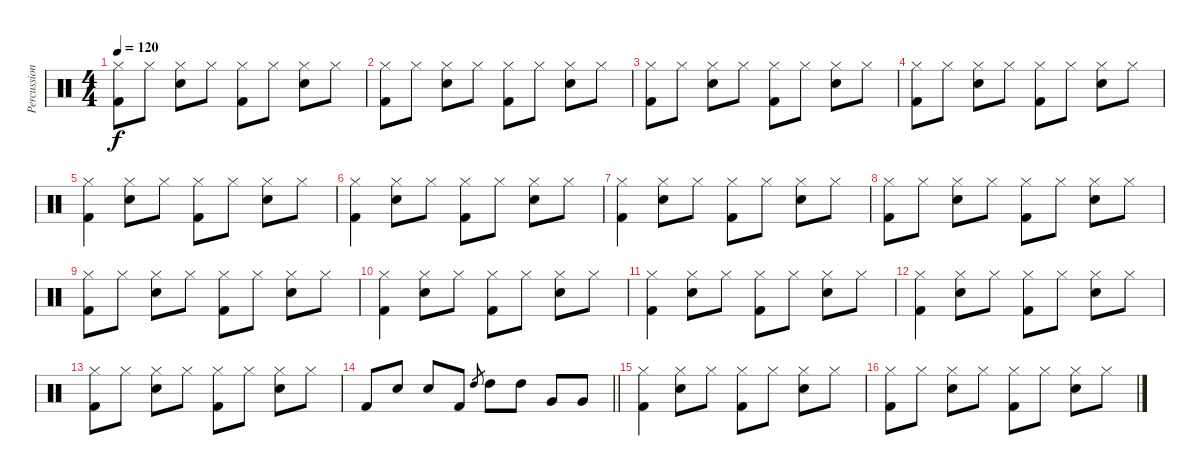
\track ("Percussion" "Percussion") {instrument percussion}
\staff {score}
\articulation defaults
\ts (4 4)
\tempo 120
\clef neutral
\ks c
("Hi-Hat (closed)" "Kick (hit) 2").8{dy f} "Hi-Hat (closed)".8 ("Hi-Hat (closed)" "Snare (hit) 2").8 "Hi-Hat (closed)".8 ("Hi-Hat (closed)" "Kick (hit) 2").8 "Hi-Hat (closed)".8 ("Hi-Hat (closed)" "Snare (hit) 2").8 "Hi-Hat (closed)".8 |
("Hi-Hat (closed)" "Kick (hit) 2").8 "Hi-Hat (closed)".8 ("Hi-Hat (closed)" "Snare (hit) 2").8 "Hi-Hat (closed)".8 ("Hi-Hat (closed)" "Kick (hit) 2").8 "Hi-Hat (closed)".8 ("Hi-Hat (closed)" "Snare (hit) 2").8 "Hi-Hat (closed)".8 |
("Hi-Hat (closed)" "Kick (hit) 2").8 "Hi-Hat (closed)".8 ("Hi-Hat (closed)" "Snare (hit) 2").8 "Hi-Hat (closed)".8 ("Hi-Hat (closed)" "Kick (hit) 2").8 "Hi-Hat (closed)".8 ("Hi-Hat (closed)" "Snare (hit) 2").8 "Hi-Hat (closed)".8 |
("Hi-Hat (closed)" "Kick (hit) 2").8 "Hi-Hat (closed)".8 ("Hi-Hat (closed)" "Snare (hit) 2").8 "Hi-Hat (closed)".8 ("Hi-Hat (closed)" "Kick (hit) 2").8 "Hi-Hat (closed)".8 ("Hi-Hat (closed)" "Snare (hit) 2").8 "Hi-Hat (closed)".8 |
("Hi-Hat (closed)" "Kick (hit) 2").4 ("Hi-Hat (closed)" "Snare (hit) 2").8 "Hi-Hat (closed)".8 ("Hi-Hat (closed)" "Kick (hit) 2").8 "Hi-Hat (closed)".8 ("Hi-Hat (closed)" "Snare (hit) 2").8 "Hi-Hat (closed)".8 |
("Hi-Hat (closed)" "Kick (hit) 2").4 ("Hi-Hat (closed)" "Snare (hit) 2").8 "Hi-Hat (closed)".8 ("Hi-Hat (closed)" "Kick (hit) 2").8 "Hi-Hat (closed)".8 ("Hi-Hat (closed)" "Snare (hit) 2").8 "Hi-Hat (closed)".8 |
("Hi-Hat (closed)" "Kick (hit) 2").4 ("Hi-Hat (closed)" "Snare (hit) 2").8 "Hi-Hat (closed)".8 ("Hi-Hat (closed)" "Kick (hit) 2").8 "Hi-Hat (closed)".8 ("Hi-Hat (closed)" "Snare (hit) 2").8 "Hi-Hat (closed)".8 |
("Hi-Hat (closed)" "Kick (hit) 2").8 "Hi-Hat (closed)".8 ("Hi-Hat (closed)" "Snare (hit) 2").8 "Hi-Hat (closed)".8 ("Hi-Hat (closed)" "Kick (hit) 2").8 "Hi-Hat (closed)".8 ("Hi-Hat (closed)" "Snare (hit) 2").8 "Hi-Hat (closed)".8 |
("Hi-Hat (closed)" "Kick (hit) 2").8 "Hi-Hat (closed)".8 ("Hi-Hat (closed)" "Snare (hit) 2").8 "Hi-Hat (closed)".8 ("Hi-Hat (closed)" "Kick (hit) 2").8 "Hi-Hat (closed)".8 ("Hi-Hat (closed)" "Snare (hit) 2").8 "Hi-Hat (closed)".8 |
("Hi-Hat (closed)" "Kick (hit) 2").4 ("Hi-Hat (closed)" "Snare (hit) 2").8 "Hi-Hat (closed)".8 ("Hi-Hat (closed)" "Kick (hit) 2").8 "Hi-Hat (closed)".8 ("Hi-Hat (closed)" "Snare (hit) 2").8 "Hi-Hat (closed)".8 |
("Hi-Hat (closed)" "Kick (hit) 2").4 ("Hi-Hat (closed)" "Snare (hit) 2").8 "Hi-Hat (closed)".8 ("Hi-Hat (closed)" "Kick (hit) 2").8 "Hi-Hat (closed)".8 ("Hi-Hat (closed)" "Snare (hit) 2").8 "Hi-Hat (closed)".8 |
("Hi-Hat (closed)" "Kick (hit) 2").4 ("Hi-Hat (closed)" "Snare (hit) 2").8 "Hi-Hat (closed)".8 ("Hi-Hat (closed)" "Kick (hit) 2").8 "Hi-Hat (closed)".8 ("Hi-Hat (closed)" "Snare (hit) 2").8 "Hi-Hat (closed)".8 |
("Hi-Hat (closed)" "Kick (hit) 2").8 "Hi-Hat (closed)".8 ("Hi-Hat (closed)" "Snare (hit) 2").8 "Hi-Hat (closed)".8 ("Hi-Hat (closed)" "Kick (hit) 2").8 "Hi-Hat (closed)".8 ("Hi-Hat (closed)" "Snare (hit) 2").8 "Hi-Hat (closed)".8 |
\barLineRight lightlight "Kick (hit) 2".8 "Snare (hit) 2".8 "Snare (hit) 2".8 "Kick (hit) 2".8 "High Tom (hit)".8{gr} "High Tom (hit)".8 "High Tom (hit)".8 "Very Low Tom (hit)".8 "Very Low Tom (hit)".8
|
("Hi-Hat (closed)" "Kick (hit) 2").4 ("Hi-Hat (closed)" "Snare (hit) 2").8 "Hi-Hat (closed)".8 ("Hi-Hat (closed)" "Kick (hit) 2").8 "Hi-Hat (closed)".8 ("Hi-Hat (closed)" "Snare (hit) 2").8 "Hi-Hat (closed)".8 |
("Hi-Hat (closed)" "Kick (hit) 2").8 "Hi-Hat (closed)".8 ("Hi-Hat (closed)" "Snare (hit) 2").8 "Hi-Hat (closed)".8 ("Hi-Hat (closed)" "Kick (hit) 2").8 "Hi-Hat (closed)".8 ("Hi-Hat (closed)" "Snare (hit) 2").8 "Hi-Hat (closed)".8
